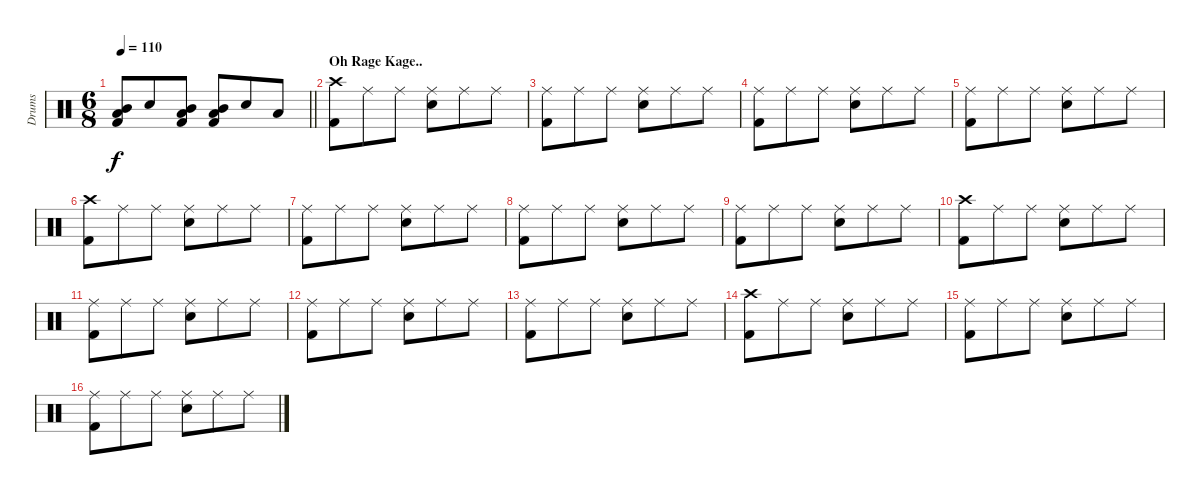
\track ("Drums" "Drums") {instrument percussion}
\staff {score}
\articulation defaults
\ts (6 8)
\tempo 110
\clef neutral
\barLineRight lightlight
\ks c
("Mid Tom (hit)" "Low Tom (hit)" "Kick (hit) 2").8{dy f} "Electric Snare (hit)".8 ("Mid Tom (hit)" "Low Tom (hit)" "Kick (hit) 2").8 ("Mid Tom (hit)" "Low Tom (hit)" "Kick (hit) 2").8 "Electric Snare (hit)".8 "Low Tom (hit)".8 |
\section ("" "Oh Rage Kage..")
("Crash high (hit)" "Kick (hit) 2").8 "Ride (middle)".8 "Ride (middle)".8 ("Ride (middle)" "Electric Snare (hit)").8 "Ride (middle)".8 "Ride (middle)".8 |
("Ride (middle)" "Kick (hit) 2").8 "Ride (middle)".8 "Ride (middle)".8 ("Ride (middle)" "Electric Snare (hit)").8 "Ride (middle)".8 "Ride (middle)".8 |
("Ride (middle)" "Kick (hit) 2").8 "Ride (middle)".8 "Ride (middle)".8 ("Ride (middle)" "Electric Snare (hit)").8 "Ride (middle)".8 "Ride (middle)".8 |
("Ride (middle)" "Kick (hit) 2").8 "Ride (middle)".8 "Ride (middle)".8 ("Ride (middle)" "Electric Snare (hit)").8 "Ride (middle)".8 "Ride (middle)".8 |
("Crash high (hit)" "Kick (hit) 2").8 "Ride (middle)".8 "Ride (middle)".8 ("Ride (middle)" "Electric Snare (hit)").8 "Ride (middle)".8 "Ride (middle)".8 |
("Ride (middle)" "Kick (hit) 2").8 "Ride (middle)".8 "Ride (middle)".8 ("Ride (middle)" "Electric Snare (hit)").8 "Ride (middle)".8 "Ride (middle)".8 |
("Ride (middle)" "Kick (hit) 2").8 "Ride (middle)".8 "Ride (middle)".8 ("Ride (middle)" "Electric Snare (hit)").8 "Ride (middle)".8 "Ride (middle)".8 |
("Ride (middle)" "Kick (hit) 2").8 "Ride (middle)".8 "Ride (middle)".8 ("Ride (middle)" "Electric Snare (hit)").8 "Ride (middle)".8 "Ride (middle)".8 |
("Crash high (hit)" "Kick (hit) 2").8 "Ride (middle)".8 "Ride (middle)".8 ("Ride (middle)" "Electric Snare (hit)").8 "Ride (middle)".8 "Ride (middle)".8 |
("Ride (middle)" "Kick (hit) 2").8 "Ride (middle)".8 "Ride (middle)".8 ("Ride (middle)" "Electric Snare (hit)").8 "Ride (middle)".8 "Ride (middle)".8 |
("Ride (middle)" "Kick (hit) 2").8 "Ride (middle)".8 "Ride (middle)".8 ("Ride (middle)" "Electric Snare (hit)").8 "Ride (middle)".8 "Ride (middle)".8 |
("Ride (middle)" "Kick (hit) 2").8 "Ride (middle)".8 "Ride (middle)".8 ("Ride (middle)" "Electric Snare (hit)").8 "Ride (middle)".8 "Ride (middle)".8 |
("Crash high (hit)" "Kick (hit) 2").8 "Ride (middle)".8 "Ride (middle)".8 ("Ride (middle)" "Electric Snare (hit)").8 "Ride (middle)".8 "Ride (middle)".8 |
("Ride (middle)" "Kick (hit) 2").8 "Ride (middle)".8 "Ride (middle)".8 ("Ride (middle)" "Electric Snare (hit)").8 "Ride (middle)".8 "Ride (middle)".8 |
("Ride (middle)" "Kick (hit) 2").8 "Ride (middle)".8 "Ride (middle)".8 ("Ride (middle)" "Electric Snare (hit)").8 "Ride (middle)".8 "Ride (middle)".8
